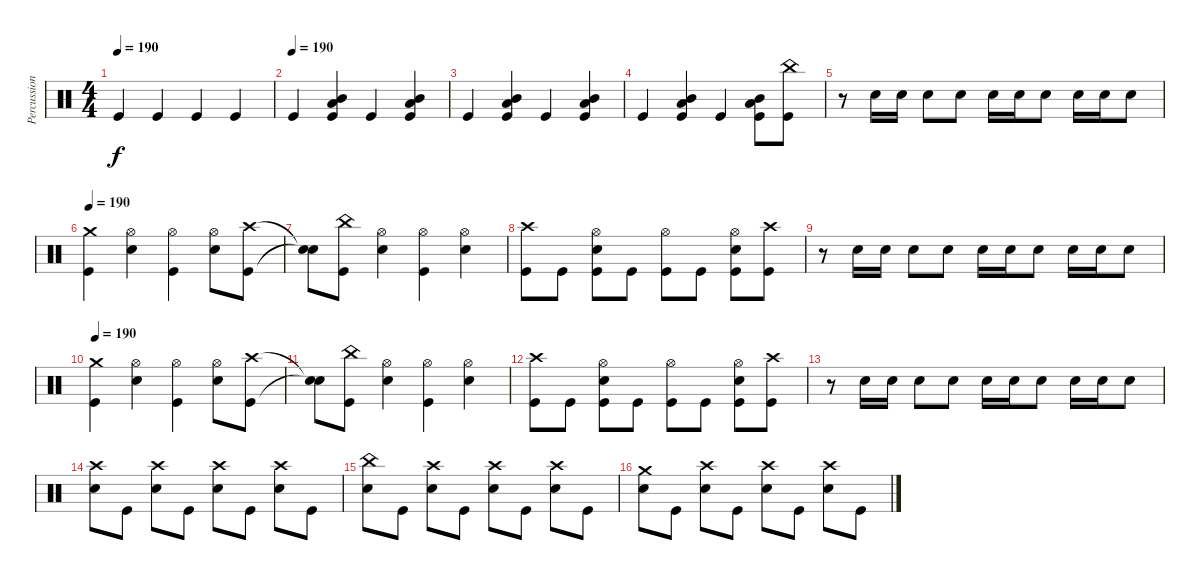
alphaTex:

\track ("Percussion" "Percussion") {instrument percussion}
\staff {score}
\articulation defaults
\ts (4 4)
\tempo 190
\clef neutral
\ks c "Kick (hit)".4{dy f} "Kick (hit)".4 "Kick (hit)".4 "Kick (hit)".4
|
\tempo (190)
"Kick (hit)".4 ("Mid Tom (hit)" "Low Tom (hit)" "Kick (hit)").4 "Kick (hit)".4 ("Mid Tom (hit)" "Low Tom (hit)" "Kick (hit)").4 |
"Kick (hit)".4 ("Low Tom (hit)" "Mid Tom (hit)" "Kick (hit)").4 "Kick (hit)".4 ("Low Tom (hit)" "Mid Tom (hit)" "Kick (hit)").4 |
"Kick (hit)".4 ("Mid Tom (hit)" "Low Tom (hit)" "Kick (hit)").4 "Kick (hit)".4 ("Mid Tom (hit)" "Low Tom (hit)" "Kick (hit)").8 ("China (hit)" "Kick (hit)").8 |
r.8 "Electric Snare (hit)".16 "Electric Snare (hit)".16 "Electric Snare (hit)".8 "Electric Snare (hit)".8 "Electric Snare (hit)".16 "Electric Snare (hit)".16 "Electric Snare (hit)".8 "Electric Snare (hit)".16 "Electric Snare (hit)".16 "Electric Snare (hit)".8 |
\tempo 190
("Crash medium (hit)" "Kick (hit)").4 ("Hi-Hat (open)" "Electric Snare (hit)").4 ("Hi-Hat (open)" "Kick (hit)").4 ("Hi-Hat (open)" "Electric Snare (hit)").8 ("Crash high (hit)" "Kick (hit)").8 |
("Snare (hit)"{t} "Snare (hit)"{t}).8 ("China (hit)" "Kick (hit)").8 ("Hi-Hat (open)" "Electric Snare (hit)").4 ("Hi-Hat (open)" "Kick (hit)").4 ("Hi-Hat (open)" "Electric Snare (hit)").4 |
("Crash high (hit)" "Kick (hit)").8 "Kick (hit)".8 ("Hi-Hat (open)" "Electric Snare (hit)" "Kick (hit)").8 "Kick (hit)".8 ("Hi-Hat (open)" "Kick (hit)").8 "Kick (hit)".8 ("Hi-Hat (open)" "Electric Snare (hit)" "Kick (hit)").8 ("Crash high (hit)" "Kick (hit)").8 |
r.8 "Electric Snare (hit)".16 "Electric Snare (hit)".16 "Electric Snare (hit)".8 "Electric Snare (hit)".8 "Electric Snare (hit)".16 "Electric Snare (hit)".16 "Electric Snare (hit)".8 "Electric Snare (hit)".16 "Electric Snare (hit)".16 "Electric Snare (hit)".8 |
\tempo 190
("Crash medium (hit)" "Kick (hit)").4 ("Hi-Hat (open)" "Electric Snare (hit)").4 ("Hi-Hat (open)" "Kick (hit)").4 ("Hi-Hat (open)" "Electric Snare (hit)").8 ("Crash high (hit)" "Kick (hit)").8 |
("Snare (hit)"{t} "Snare (hit)"{t}).8 ("China (hit)" "Kick (hit)").8 ("Hi-Hat (open)" "Electric Snare (hit)").4 ("Hi-Hat (open)" "Kick (hit)").4 ("Hi-Hat (open)" "Electric Snare (hit)").4 |
("Crash high (hit)" "Kick (hit)").8 "Kick (hit)".8 ("Hi-Hat (open)" "Electric Snare (hit)" "Kick (hit)").8 "Kick (hit)".8 ("Hi-Hat (open)" "Kick (hit)").8 "Kick (hit)".8 ("Hi-Hat (open)" "Electric Snare (hit)" "Kick (hit)").8 ("Crash high (hit)" "Kick (hit)").8 |
r.8 "Electric Snare (hit)".16 "Electric Snare (hit)".16 "Electric Snare (hit)".8 "Electric Snare (hit)".8 "Electric Snare (hit)".16 "Electric Snare (hit)".16 "Electric Snare (hit)".8 "Electric Snare (hit)".16 "Electric Snare (hit)".16 "Electric Snare (hit)".8 |
("Crash high (hit)" "Electric Snare (hit)").8 "Kick (hit)".8 ("Crash high (hit)" "Electric Snare (hit)").8 "Kick (hit)".8 ("Crash high (hit)" "Electric Snare (hit)").8 "Kick (hit)".8 ("Crash high (hit)" "Electric Snare (hit)").8 "Kick (hit)".8 |
("China (hit)" "Electric Snare (hit)").8 "Kick (hit)".8 ("Crash high (hit)" "Electric Snare (hit)").8 "Kick (hit)".8 ("Crash high (hit)" "Electric Snare (hit)").8 "Kick (hit)".8 ("Crash high (hit)" "Electric Snare (hit)").8 "Kick (hit)".8 |
("Crash medium (hit)" "Electric Snare (hit)").8 "Kick (hit)".8 ("Crash high (hit)" "Electric Snare (hit)").8 "Kick (hit)".8 ("Crash high (hit)" "Electric Snare (hit)").8 "Kick (hit)".8 ("Crash high (hit)" "Electric Snare (hit)").8 "Kick (hit)".8
